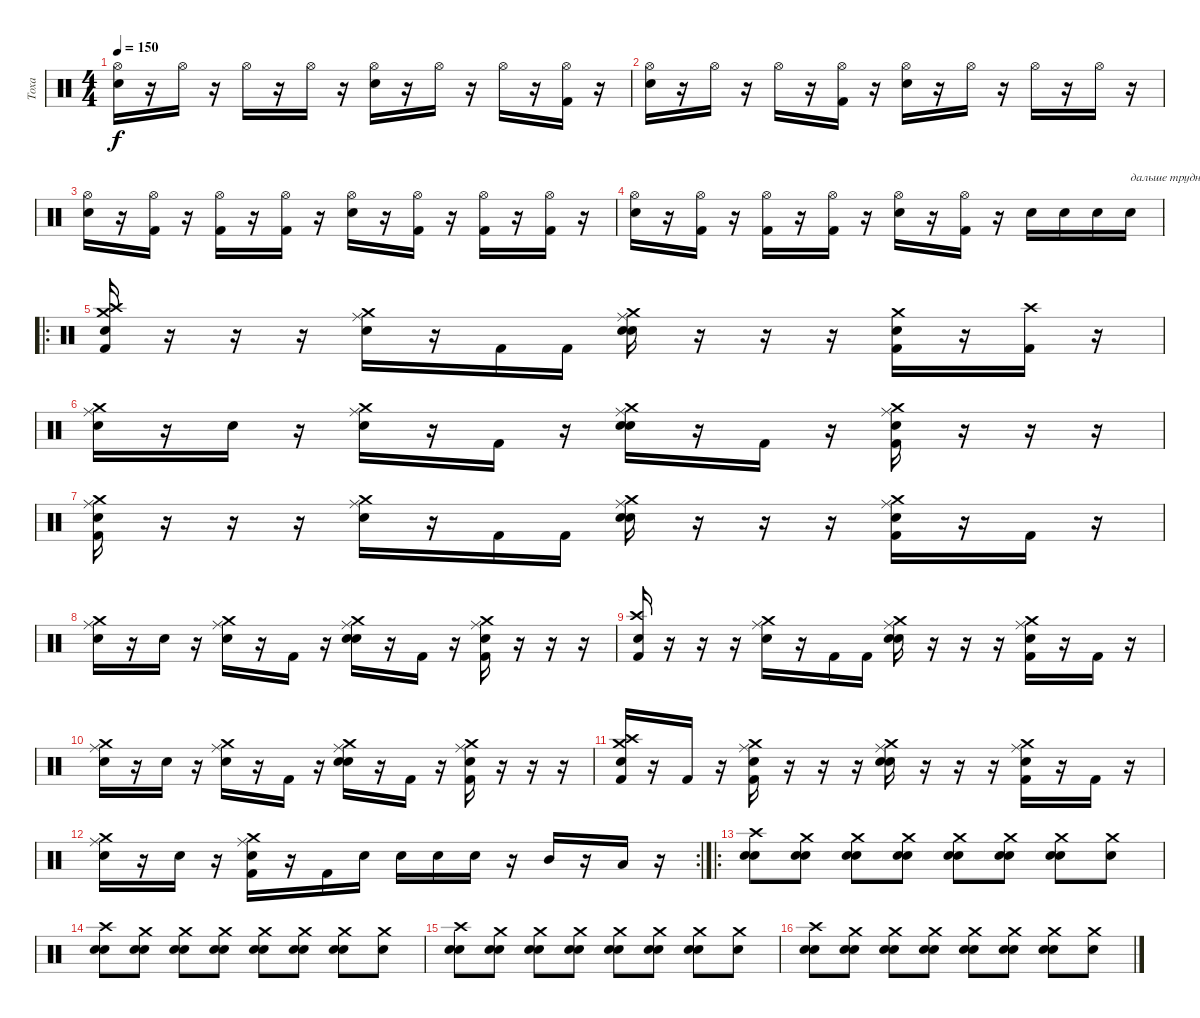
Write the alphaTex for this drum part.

\track ("Тоха" "Тоха") {instrument percussion}
\staff {score}
\articulation defaults
\ts (4 4)
\tempo 150
\clef neutral
\ks c
("Hi-Hat (open)" "Electric Snare (hit)").16{dy f} r.16 "Hi-Hat (open)".16 r.16 "Hi-Hat (open)".16 r.16 "Hi-Hat (open)".16 r.16 ("Hi-Hat (open)" "Electric Snare (hit)").16 r.16 "Hi-Hat (open)".16 r.16 "Hi-Hat (open)".16 r.16 ("Hi-Hat (open)" "Kick (hit) 2").16 r.16 |
("Hi-Hat (open)" "Electric Snare (hit)").16 r.16 "Hi-Hat (open)".16 r.16 "Hi-Hat (open)".16 r.16 ("Hi-Hat (open)" "Kick (hit) 2").16 r.16 ("Hi-Hat (open)" "Electric Snare (hit)").16 r.16 "Hi-Hat (open)".16 r.16 "Hi-Hat (open)".16 r.16 "Hi-Hat (open)".16 r.16 |
("Hi-Hat (open)" "Electric Snare (hit)").16 r.16 ("Hi-Hat (open)" "Kick (hit) 2").16 r.16 ("Hi-Hat (open)" "Kick (hit) 2").16 r.16 ("Hi-Hat (open)" "Kick (hit) 2").16 r.16 ("Hi-Hat (open)" "Electric Snare (hit)").16 r.16 ("Hi-Hat (open)" "Kick (hit) 2").16 r.16 ("Hi-Hat (open)" "Kick (hit) 2").16 r.16 ("Hi-Hat (open)" "Kick (hit) 2").16 r.16 |
("Hi-Hat (open)" "Electric Snare (hit)").16 r.16 ("Hi-Hat (open)" "Kick (hit) 2").16 r.16 ("Hi-Hat (open)" "Kick (hit) 2").16 r.16 ("Hi-Hat (open)" "Kick (hit) 2").16 r.16 ("Hi-Hat (open)" "Electric Snare (hit)").16 r.16 ("Hi-Hat (open)" "Kick (hit) 2").16 r.16 "Electric Snare (hit)".16 "Electric Snare (hit)".16 "Electric Snare (hit)".16 "Electric Snare (hit)".16{txt "дальше трудно :)"} |
\ro
("Crash high (hit)" "Crash medium (hit)" "Snare (hit) 2" "Kick (hit) 2").16 r.16 r.16 r.16 ("Ride (middle)" "Crash medium (hit)" "Snare (hit) 2").16 r.16 "Kick (hit) 2".16 "Kick (hit) 2".16 ("Ride (middle)" "Crash medium (hit)" "Snare (hit) 2" "Electric Snare (hit)").16 r.16 r.16 r.16 ("Crash medium (hit)" "Snare (hit) 2" "Kick (hit) 2").16 r.16 ("Crash high (hit)" "Kick (hit) 2").16 r.16 |
("Ride (middle)" "Crash medium (hit)" "Snare (hit) 2").16 r.16 "Electric Snare (hit)".16 r.16 ("Ride (middle)" "Crash medium (hit)" "Snare (hit) 2").16 r.16 "Kick (hit) 2".16 r.16 ("Ride (middle)" "Crash medium (hit)" "Snare (hit) 2" "Electric Snare (hit)").16 r.16 "Kick (hit) 2".16 r.16 ("Ride (middle)" "Crash medium (hit)" "Snare (hit) 2" "Kick (hit) 2").16 r.16 r.16 r.16 |
("Ride (middle)" "Crash medium (hit)" "Snare (hit) 2" "Kick (hit) 2").16 r.16 r.16 r.16 ("Ride (middle)" "Crash medium (hit)" "Snare (hit) 2").16 r.16 "Kick (hit) 2".16 "Kick (hit) 2".16 ("Ride (middle)" "Crash medium (hit)" "Snare (hit) 2" "Electric Snare (hit)").16 r.16 r.16 r.16 ("Ride (middle)" "Crash medium (hit)" "Snare (hit) 2" "Kick (hit) 2").16 r.16 "Kick (hit) 2".16 r.16 |
("Ride (middle)" "Crash medium (hit)" "Snare (hit) 2").16 r.16 "Electric Snare (hit)".16 r.16 ("Ride (middle)" "Crash medium (hit)" "Snare (hit) 2").16 r.16 "Kick (hit) 2".16 r.16 ("Ride (middle)" "Crash medium (hit)" "Snare (hit) 2" "Electric Snare (hit)").16 r.16 "Kick (hit) 2".16 r.16 ("Ride (middle)" "Crash medium (hit)" "Snare (hit) 2" "Kick (hit) 2").16 r.16 r.16 r.16 |
("Crash high (hit)" "Snare (hit) 2" "Kick (hit) 2").16 r.16 r.16 r.16 ("Ride (middle)" "Crash medium (hit)" "Snare (hit) 2").16 r.16 "Kick (hit) 2".16 "Kick (hit) 2".16 ("Ride (middle)" "Crash medium (hit)" "Snare (hit) 2" "Electric Snare (hit)").16 r.16 r.16 r.16 ("Ride (middle)" "Crash medium (hit)" "Snare (hit) 2" "Kick (hit) 2").16 r.16 "Kick (hit) 2".16 r.16 |
("Ride (middle)" "Crash medium (hit)" "Snare (hit) 2").16 r.16 "Electric Snare (hit)".16 r.16 ("Ride (middle)" "Crash medium (hit)" "Snare (hit) 2").16 r.16 "Kick (hit) 2".16 r.16 ("Ride (middle)" "Crash medium (hit)" "Snare (hit) 2" "Electric Snare (hit)").16 r.16 "Kick (hit) 2".16 r.16 ("Ride (middle)" "Crash medium (hit)" "Snare (hit) 2" "Kick (hit) 2").16 r.16 r.16 r.16 |
("Crash high (hit)" "Crash medium (hit)" "Snare (hit) 2" "Kick (hit) 2").16 r.16 "Kick (hit) 2".16 r.16 ("Ride (middle)" "Crash medium (hit)" "Snare (hit) 2" "Kick (hit) 2").16 r.16 r.16 r.16 ("Ride (middle)" "Crash medium (hit)" "Snare (hit) 2" "Electric Snare (hit)").16 r.16 r.16 r.16 ("Ride (middle)" "Crash medium (hit)" "Snare (hit) 2" "Kick (hit) 2").16 r.16 "Kick (hit) 2".16 r.16 |
\rc 2
("Ride (middle)" "Crash medium (hit)" "Snare (hit) 2").16 r.16 "Electric Snare (hit)".16 r.16 ("Ride (middle)" "Crash medium (hit)" "Snare (hit) 2" "Kick (hit) 2").16 r.16 "Kick (hit) 2".16 "Electric Snare (hit)".16 "Electric Snare (hit)".16 "Electric Snare (hit)".16 "Electric Snare (hit)".16 r.16 "Mid Tom (hit)".16 r.16 "Low Tom (hit)".16 r.16 |
\ro
("Crash high (hit)" "Snare (hit) 2" "Electric Snare (hit)").8 ("Crash medium (hit)" "Snare (hit) 2" "Electric Snare (hit)").8 ("Crash medium (hit)" "Snare (hit) 2" "Electric Snare (hit)").8 ("Crash medium (hit)" "Snare (hit) 2" "Electric Snare (hit)").8 ("Crash medium (hit)" "Snare (hit) 2" "Electric Snare (hit)").8 ("Crash medium (hit)" "Snare (hit) 2" "Electric Snare (hit)").8 ("Crash medium (hit)" "Snare (hit) 2" "Electric Snare (hit)").8 ("Crash medium (hit)" "Snare (hit) 2").8 |
("Crash high (hit)" "Snare (hit) 2" "Electric Snare (hit)").8 ("Crash medium (hit)" "Snare (hit) 2" "Electric Snare (hit)").8 ("Crash medium (hit)" "Snare (hit) 2" "Electric Snare (hit)").8 ("Crash medium (hit)" "Snare (hit) 2" "Electric Snare (hit)").8 ("Crash medium (hit)" "Snare (hit) 2" "Electric Snare (hit)").8 ("Crash medium (hit)" "Snare (hit) 2" "Electric Snare (hit)").8 ("Crash medium (hit)" "Snare (hit) 2" "Electric Snare (hit)").8 ("Crash medium (hit)" "Snare (hit) 2").8 |
("Crash high (hit)" "Snare (hit) 2" "Electric Snare (hit)").8 ("Crash medium (hit)" "Snare (hit) 2" "Electric Snare (hit)").8 ("Crash medium (hit)" "Snare (hit) 2" "Electric Snare (hit)").8 ("Crash medium (hit)" "Snare (hit) 2" "Electric Snare (hit)").8 ("Crash medium (hit)" "Snare (hit) 2" "Electric Snare (hit)").8 ("Crash medium (hit)" "Snare (hit) 2" "Electric Snare (hit)").8 ("Crash medium (hit)" "Snare (hit) 2" "Electric Snare (hit)").8 ("Crash medium (hit)" "Snare (hit) 2").8 |
("Crash high (hit)" "Snare (hit) 2" "Electric Snare (hit)").8 ("Crash medium (hit)" "Snare (hit) 2" "Electric Snare (hit)").8 ("Crash medium (hit)" "Snare (hit) 2" "Electric Snare (hit)").8 ("Crash medium (hit)" "Snare (hit) 2" "Electric Snare (hit)").8 ("Crash medium (hit)" "Snare (hit) 2" "Electric Snare (hit)").8 ("Crash medium (hit)" "Snare (hit) 2" "Electric Snare (hit)").8 ("Crash medium (hit)" "Snare (hit) 2" "Electric Snare (hit)").8 ("Crash medium (hit)" "Snare (hit) 2").8
